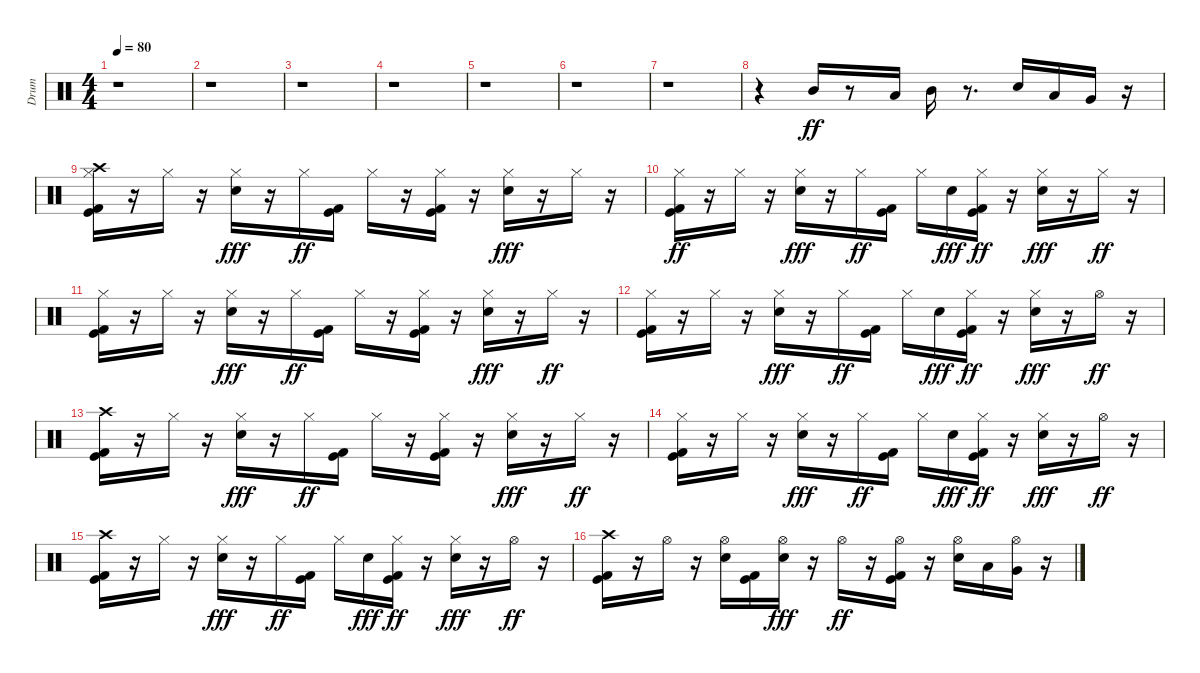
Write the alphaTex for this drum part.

\track ("Drum" "Drum") {instrument percussion}
\staff {score}
\articulation defaults
\ts (4 4)
\tempo 80
\clef neutral
\ks c
r.1{dy ff} |
r.1 |
r.1 |
r.1 |
r.1 |
r.1 |
r.1 |
r.4 "Mid Tom (hit)".16 r.8 "Low Tom (hit)".16 "Mid Tom (hit)".16 r.8{d} "Electric Snare (hit)".16 "Low Tom (hit)".16 "Very Low Tom (hit)".16 r.16 |
("Crash high (hit)" "Hi-Hat (closed)" "Kick (hit)" "Kick (hit) 2").16 r.16 "Hi-Hat (closed)".16 r.16 ("Hi-Hat (closed)" "Electric Snare (hit)").16{dy fff} r.16 "Hi-Hat (closed)".16{dy ff} ("Kick (hit)" "Kick (hit) 2").16 "Hi-Hat (closed)".16 r.16 ("Hi-Hat (closed)" "Kick (hit)" "Kick (hit) 2").16 r.16 ("Hi-Hat (closed)" "Electric Snare (hit)").16{dy fff} r.16 "Hi-Hat (closed)".16 r.16 |
("Hi-Hat (closed)" "Kick (hit)" "Kick (hit) 2").16{dy ff} r.16 "Hi-Hat (closed)".16 r.16 ("Hi-Hat (closed)" "Electric Snare (hit)").16{dy fff} r.16 "Hi-Hat (closed)".16{dy ff} ("Kick (hit)" "Kick (hit) 2").16 "Hi-Hat (closed)".16 "Electric Snare (hit)".16{dy fff} ("Hi-Hat (closed)" "Kick (hit)" "Kick (hit) 2").16{dy ff} r.16 ("Hi-Hat (closed)" "Electric Snare (hit)").16{dy fff} r.16 "Hi-Hat (closed)".16{dy ff} r.16 |
("Hi-Hat (closed)" "Kick (hit)" "Kick (hit) 2").16 r.16 "Hi-Hat (closed)".16 r.16 ("Hi-Hat (closed)" "Electric Snare (hit)").16{dy fff} r.16 "Hi-Hat (closed)".16{dy ff} ("Kick (hit)" "Kick (hit) 2").16 "Hi-Hat (closed)".16 r.16 ("Hi-Hat (closed)" "Kick (hit)" "Kick (hit) 2").16 r.16 ("Hi-Hat (closed)" "Electric Snare (hit)").16{dy fff} r.16 "Hi-Hat (closed)".16{dy ff} r.16 |
("Hi-Hat (closed)" "Kick (hit)" "Kick (hit) 2").16 r.16 "Hi-Hat (closed)".16 r.16 ("Hi-Hat (closed)" "Electric Snare (hit)").16{dy fff} r.16 "Hi-Hat (closed)".16{dy ff} ("Kick (hit)" "Kick (hit) 2").16 "Hi-Hat (closed)".16 "Electric Snare (hit)".16{dy fff} ("Hi-Hat (closed)" "Kick (hit)" "Kick (hit) 2").16{dy ff} r.16 ("Hi-Hat (closed)" "Electric Snare (hit)").16{dy fff} r.16 "Hi-Hat (open)".16{dy ff} r.16 |
("Crash high (hit)" "Kick (hit)" "Kick (hit) 2").16 r.16 "Hi-Hat (closed)".16 r.16 ("Hi-Hat (closed)" "Electric Snare (hit)").16{dy fff} r.16 "Hi-Hat (closed)".16{dy ff} ("Kick (hit)" "Kick (hit) 2").16 "Hi-Hat (closed)".16 r.16 ("Hi-Hat (closed)" "Kick (hit)" "Kick (hit) 2").16 r.16 ("Hi-Hat (closed)" "Electric Snare (hit)").16{dy fff} r.16 "Hi-Hat (closed)".16{dy ff} r.16 |
("Hi-Hat (closed)" "Kick (hit)" "Kick (hit) 2").16 r.16 "Hi-Hat (closed)".16 r.16 ("Hi-Hat (closed)" "Electric Snare (hit)").16{dy fff} r.16 "Hi-Hat (closed)".16{dy ff} ("Kick (hit)" "Kick (hit) 2").16 "Hi-Hat (closed)".16 "Electric Snare (hit)".16{dy fff} ("Hi-Hat (closed)" "Kick (hit)" "Kick (hit) 2").16{dy ff} r.16 ("Hi-Hat (closed)" "Electric Snare (hit)").16{dy fff} r.16 "Hi-Hat (open)".16{dy ff} r.16 |
("Crash high (hit)" "Kick (hit)" "Kick (hit) 2").16 r.16 "Hi-Hat (closed)".16 r.16 ("Hi-Hat (closed)" "Electric Snare (hit)").16{dy fff} r.16 "Hi-Hat (closed)".16{dy ff} ("Kick (hit)" "Kick (hit) 2").16 "Hi-Hat (closed)".16 "Electric Snare (hit)".16{dy fff} ("Hi-Hat (closed)" "Kick (hit)" "Kick (hit) 2").16{dy ff} r.16 ("Hi-Hat (closed)" "Electric Snare (hit)").16{dy fff} r.16 "Hi-Hat (open)".16{dy ff} r.16 |
("Kick (hit)" "Kick (hit) 2" "Crash high (hit)").16 r.16 "Hi-Hat (open)".16 r.16 ("Electric Snare (hit)" "Hi-Hat (open)").16 ("Kick (hit)" "Kick (hit) 2").16 ("Hi-Hat (open)" "Electric Snare (hit)").16{dy fff} r.16 "Hi-Hat (open)".16{dy ff} r.16 ("Hi-Hat (open)" "Kick (hit) 2" "Kick (hit)").16 r.16 ("Electric Snare (hit)" "Hi-Hat (open)").16 "Low Tom (hit)".16 ("Hi-Hat (open)" "Very Low Tom (hit)").16 r.16
